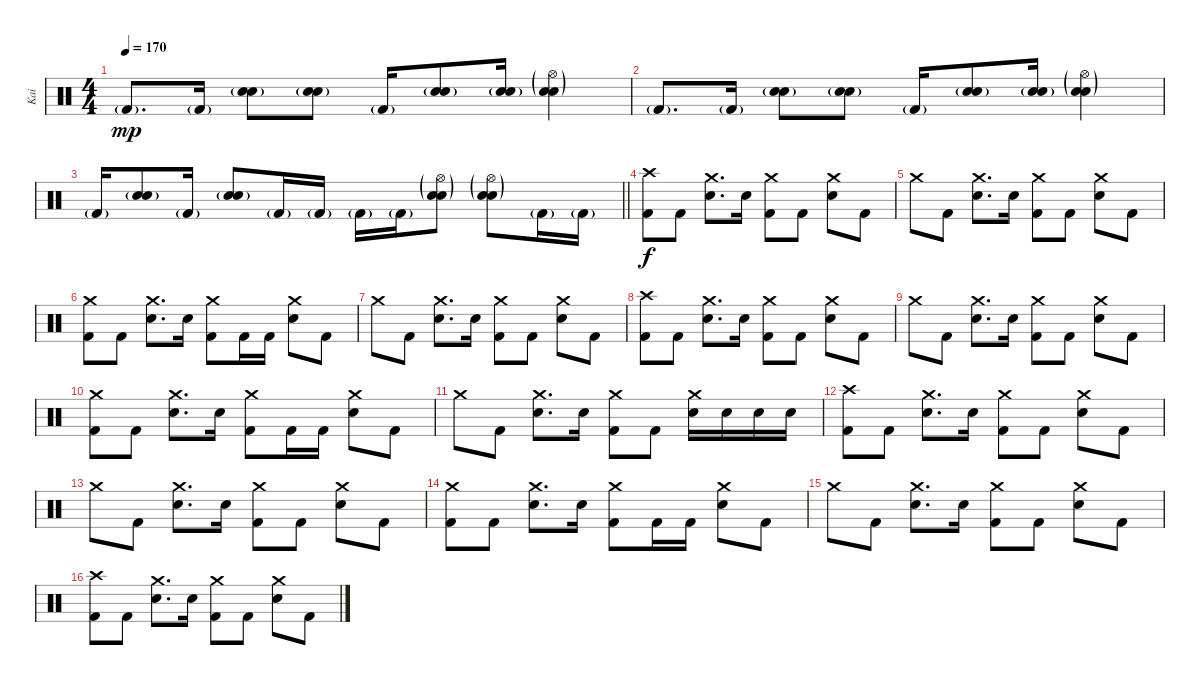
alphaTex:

\track ("Kai" "Kai") {instrument percussion}
\staff {score}
\articulation defaults
\ts (4 4)
\tempo 170
\clef neutral
\ks c "Kick (hit) 2"{g}.8{d dy mp} "Kick (hit) 2"{g}.16
("Snare (hit) 2"{g} "Electric Snare (hit)"{g}).8 ("Snare (hit) 2"{g} "Electric Snare (hit)"{g}).8 "Kick (hit) 2"{g}.16 ("Snare (hit) 2"{g} "Electric Snare (hit)"{g}).8 ("Snare (hit) 2"{g} "Electric Snare (hit)"{g}).16 ("Hi-Hat (open)"{g} "Snare (hit) 2"{g} "Electric Snare (hit)"{g}).4 |
"Kick (hit) 2"{g}.8{d} "Kick (hit) 2"{g}.16 ("Snare (hit) 2"{g} "Electric Snare (hit)"{g}).8 ("Snare (hit) 2"{g} "Electric Snare (hit)"{g}).8 "Kick (hit) 2"{g}.16 ("Snare (hit) 2"{g} "Electric Snare (hit)"{g}).8 ("Snare (hit) 2"{g} "Electric Snare (hit)"{g}).16 ("Hi-Hat (open)"{g} "Snare (hit) 2"{g} "Electric Snare (hit)"{g}).4 |
\barLineRight lightlight "Kick (hit) 2"{g}.16
("Snare (hit) 2"{g} "Electric Snare (hit)"{g}).8 "Kick (hit) 2"{g}.16 ("Snare (hit) 2"{g} "Electric Snare (hit)"{g}).8 "Kick (hit) 2"{g}.16 "Kick (hit) 2"{g}.16 "Kick (hit) 2"{g}.16 "Kick (hit) 2"{g}.16 ("Hi-Hat (open)"{g} "Snare (hit) 2"{g} "Electric Snare (hit)"{g}).8 ("Hi-Hat (open)"{g} "Snare (hit) 2"{g} "Electric Snare (hit)"{g}).8 "Kick (hit) 2"{g}.16 "Kick (hit) 2"{g}.16 |
\section ("" "")
("Crash high (hit)" "Kick (hit) 2").8{dy f} "Kick (hit) 2".8 ("Crash medium (hit)" "Electric Snare (hit)").8{d} "Electric Snare (hit)".16 ("Crash medium (hit)" "Kick (hit) 2").8 "Kick (hit) 2".8 ("Crash medium (hit)" "Electric Snare (hit)").8 "Kick (hit) 2".8 |
"Crash medium (hit)".8 "Kick (hit) 2".8 ("Crash medium (hit)" "Electric Snare (hit)").8{d} "Electric Snare (hit)".16 ("Crash medium (hit)" "Kick (hit) 2").8 "Kick (hit) 2".8 ("Crash medium (hit)" "Electric Snare (hit)").8 "Kick (hit) 2".8 |
("Crash medium (hit)" "Kick (hit) 2").8 "Kick (hit) 2".8 ("Crash medium (hit)" "Electric Snare (hit)").8{d} "Electric Snare (hit)".16 ("Crash medium (hit)" "Kick (hit) 2").8 "Kick (hit) 2".16 "Kick (hit) 2".16 ("Crash medium (hit)" "Electric Snare (hit)").8 "Kick (hit) 2".8 |
"Crash medium (hit)".8 "Kick (hit) 2".8 ("Crash medium (hit)" "Electric Snare (hit)").8{d} "Electric Snare (hit)".16 ("Crash medium (hit)" "Kick (hit) 2").8 "Kick (hit) 2".8 ("Crash medium (hit)" "Electric Snare (hit)").8 "Kick (hit) 2".8 |
("Crash high (hit)" "Kick (hit) 2").8 "Kick (hit) 2".8 ("Crash medium (hit)" "Electric Snare (hit)").8{d} "Electric Snare (hit)".16 ("Crash medium (hit)" "Kick (hit) 2").8 "Kick (hit) 2".8 ("Crash medium (hit)" "Electric Snare (hit)").8 "Kick (hit) 2".8 |
"Crash medium (hit)".8 "Kick (hit) 2".8 ("Crash medium (hit)" "Electric Snare (hit)").8{d} "Electric Snare (hit)".16 ("Crash medium (hit)" "Kick (hit) 2").8 "Kick (hit) 2".8 ("Crash medium (hit)" "Electric Snare (hit)").8 "Kick (hit) 2".8 |
("Crash medium (hit)" "Kick (hit) 2").8 "Kick (hit) 2".8 ("Crash medium (hit)" "Electric Snare (hit)").8{d} "Electric Snare (hit)".16 ("Crash medium (hit)" "Kick (hit) 2").8 "Kick (hit) 2".16 "Kick (hit) 2".16 ("Crash medium (hit)" "Electric Snare (hit)").8 "Kick (hit) 2".8 |
"Crash medium (hit)".8 "Kick (hit) 2".8 ("Crash medium (hit)" "Electric Snare (hit)").8{d} "Electric Snare (hit)".16 ("Crash medium (hit)" "Kick (hit) 2").8 "Kick (hit) 2".8 ("Crash medium (hit)" "Electric Snare (hit)").16 "Electric Snare (hit)".16 "Electric Snare (hit)".16 "Electric Snare (hit)".16 |
("Crash high (hit)" "Kick (hit) 2").8 "Kick (hit) 2".8 ("Crash medium (hit)" "Electric Snare (hit)").8{d} "Electric Snare (hit)".16 ("Crash medium (hit)" "Kick (hit) 2").8 "Kick (hit) 2".8 ("Crash medium (hit)" "Electric Snare (hit)").8 "Kick (hit) 2".8 |
"Crash medium (hit)".8 "Kick (hit) 2".8 ("Crash medium (hit)" "Electric Snare (hit)").8{d} "Electric Snare (hit)".16 ("Crash medium (hit)" "Kick (hit) 2").8 "Kick (hit) 2".8 ("Crash medium (hit)" "Electric Snare (hit)").8 "Kick (hit) 2".8 |
("Crash medium (hit)" "Kick (hit) 2").8 "Kick (hit) 2".8 ("Crash medium (hit)" "Electric Snare (hit)").8{d} "Electric Snare (hit)".16 ("Crash medium (hit)" "Kick (hit) 2").8 "Kick (hit) 2".16 "Kick (hit) 2".16 ("Crash medium (hit)" "Electric Snare (hit)").8 "Kick (hit) 2".8 |
"Crash medium (hit)".8 "Kick (hit) 2".8 ("Crash medium (hit)" "Electric Snare (hit)").8{d} "Electric Snare (hit)".16 ("Crash medium (hit)" "Kick (hit) 2").8 "Kick (hit) 2".8 ("Crash medium (hit)" "Electric Snare (hit)").8 "Kick (hit) 2".8 |
("Crash high (hit)" "Kick (hit) 2").8 "Kick (hit) 2".8 ("Crash medium (hit)" "Electric Snare (hit)").8{d} "Electric Snare (hit)".16 ("Crash medium (hit)" "Kick (hit) 2").8 "Kick (hit) 2".8 ("Crash medium (hit)" "Electric Snare (hit)").8 "Kick (hit) 2".8
